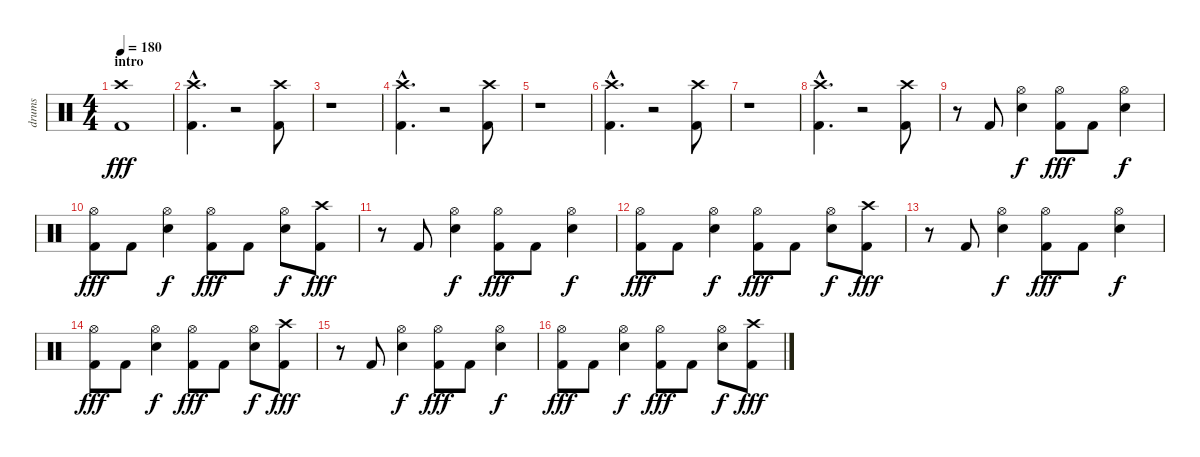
\track ("drums" "drums") {instrument percussion}
\staff {score}
\articulation defaults
\ts (4 4)
\section ("" "intro")
\tempo 180
\clef neutral
\ks c
("Crash high (hit)" "Kick (hit) 2").1{dy fff} |
("Crash high (hit)"{hac} "Kick (hit) 2"{hac}).4{d} r.2 ("Crash high (hit)" "Kick (hit) 2").8 |
r.1 |
("Crash high (hit)"{hac} "Kick (hit) 2"{hac}).4{d} r.2 ("Crash high (hit)" "Kick (hit) 2").8 |
r.1 |
("Crash high (hit)"{hac} "Kick (hit) 2"{hac}).4{d} r.2 ("Crash high (hit)" "Kick (hit) 2").8 |
r.1 |
("Crash high (hit)"{hac} "Kick (hit) 2"{hac}).4{d} r.2 ("Crash high (hit)" "Kick (hit) 2").8 |
r.8 "Kick (hit) 2".8 ("Hi-Hat (open)" "Snare (hit) 2").4{dy f} ("Hi-Hat (open)" "Kick (hit) 2").8{dy fff} "Kick (hit) 2".8 ("Hi-Hat (open)" "Snare (hit) 2").4{dy f} |
("Hi-Hat (open)" "Kick (hit) 2").8{dy fff} "Kick (hit) 2".8 ("Hi-Hat (open)" "Snare (hit) 2").4{dy f} ("Hi-Hat (open)" "Kick (hit) 2").8{dy fff} "Kick (hit) 2".8 ("Hi-Hat (open)" "Snare (hit) 2").8{dy f} ("Crash high (hit)" "Kick (hit) 2").8{dy fff} |
r.8 "Kick (hit) 2".8 ("Hi-Hat (open)" "Snare (hit) 2").4{dy f} ("Hi-Hat (open)" "Kick (hit) 2").8{dy fff} "Kick (hit) 2".8 ("Hi-Hat (open)" "Snare (hit) 2").4{dy f} |
("Hi-Hat (open)" "Kick (hit) 2").8{dy fff} "Kick (hit) 2".8 ("Hi-Hat (open)" "Snare (hit) 2").4{dy f} ("Hi-Hat (open)" "Kick (hit) 2").8{dy fff} "Kick (hit) 2".8 ("Hi-Hat (open)" "Snare (hit) 2").8{dy f} ("Crash high (hit)" "Kick (hit) 2").8{dy fff} |
r.8 "Kick (hit) 2".8 ("Hi-Hat (open)" "Snare (hit) 2").4{dy f} ("Hi-Hat (open)" "Kick (hit) 2").8{dy fff} "Kick (hit) 2".8 ("Hi-Hat (open)" "Snare (hit) 2").4{dy f} |
("Hi-Hat (open)" "Kick (hit) 2").8{dy fff} "Kick (hit) 2".8 ("Hi-Hat (open)" "Snare (hit) 2").4{dy f} ("Hi-Hat (open)" "Kick (hit) 2").8{dy fff} "Kick (hit) 2".8 ("Hi-Hat (open)" "Snare (hit) 2").8{dy f} ("Crash high (hit)" "Kick (hit) 2").8{dy fff} |
r.8 "Kick (hit) 2".8 ("Hi-Hat (open)" "Snare (hit) 2").4{dy f} ("Hi-Hat (open)" "Kick (hit) 2").8{dy fff} "Kick (hit) 2".8 ("Hi-Hat (open)" "Snare (hit) 2").4{dy f} |
("Hi-Hat (open)" "Kick (hit) 2").8{dy fff} "Kick (hit) 2".8 ("Hi-Hat (open)" "Snare (hit) 2").4{dy f} ("Hi-Hat (open)" "Kick (hit) 2").8{dy fff} "Kick (hit) 2".8 ("Hi-Hat (open)" "Snare (hit) 2").8{dy f} ("Crash high (hit)" "Kick (hit) 2").8{dy fff}
